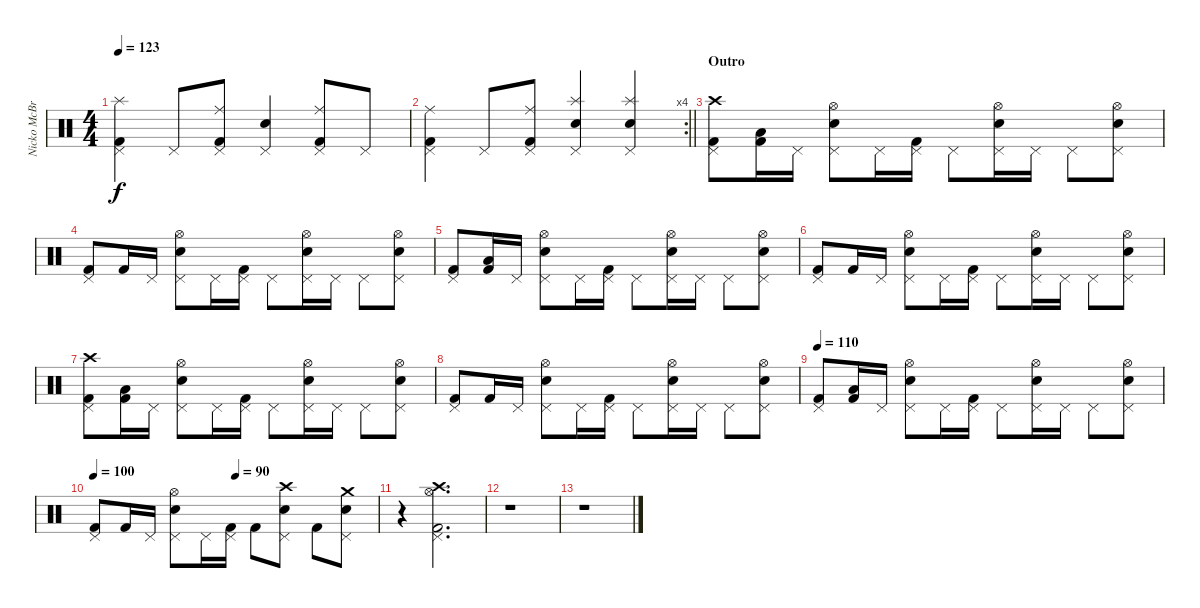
\track ("Nicko McBrain" "Nicko McBr") {instrument percussion}
\staff {score}
\articulation defaults
\ts (4 4)
\tempo 123
\clef neutral
\ks c
("Kick (hit) 2" "Pedal Hi-Hat (hit)" "Splash (hit)").4{dy f} "Pedal Hi-Hat (hit)".8 ("Kick (hit) 2" "Pedal Hi-Hat (hit)" "Ride (middle)").8 ("Snare (hit) 2" "Pedal Hi-Hat (hit)").4 ("Kick (hit) 2" "Pedal Hi-Hat (hit)" "Ride (middle)").8 "Pedal Hi-Hat (hit)".8 |
\rc 4
\barLineRight lightlight
("Kick (hit) 2" "Pedal Hi-Hat (hit)" "Ride (middle)").4 "Pedal Hi-Hat (hit)".8 ("Kick (hit) 2" "Pedal Hi-Hat (hit)" "Ride (middle)").8 ("Snare (hit) 2" "Pedal Hi-Hat (hit)" "Splash (hit)").4 ("Snare (hit) 2" "Pedal Hi-Hat (hit)" "Splash (hit)").4 |
\section ("" "Outro")
("Kick (hit) 2" "Pedal Hi-Hat (hit)" "Crash high (hit)").8 ("Kick (hit) 2" "Low Tom (hit)").16 "Pedal Hi-Hat (hit)".16 ("Snare (hit) 2" "Pedal Hi-Hat (hit)" "Hi-Hat (open)").8 "Pedal Hi-Hat (hit)".16 ("Kick (hit) 2" "Pedal Hi-Hat (hit)").16 "Pedal Hi-Hat (hit)".8 ("Snare (hit) 2" "Pedal Hi-Hat (hit)" "Hi-Hat (open)").16 "Pedal Hi-Hat (hit)".16 "Pedal Hi-Hat (hit)".8 ("Snare (hit) 2" "Pedal Hi-Hat (hit)" "Hi-Hat (open)").8 |
("Kick (hit) 2" "Pedal Hi-Hat (hit)").8 "Kick (hit) 2".16 "Pedal Hi-Hat (hit)".16 ("Snare (hit) 2" "Pedal Hi-Hat (hit)" "Hi-Hat (open)").8 "Pedal Hi-Hat (hit)".16 ("Kick (hit) 2" "Pedal Hi-Hat (hit)").16 "Pedal Hi-Hat (hit)".8 ("Snare (hit) 2" "Pedal Hi-Hat (hit)" "Hi-Hat (open)").16 "Pedal Hi-Hat (hit)".16 "Pedal Hi-Hat (hit)".8 ("Snare (hit) 2" "Pedal Hi-Hat (hit)" "Hi-Hat (open)").8 |
("Kick (hit) 2" "Pedal Hi-Hat (hit)").8 ("Kick (hit) 2" "Low Tom (hit)").16 "Pedal Hi-Hat (hit)".16 ("Snare (hit) 2" "Pedal Hi-Hat (hit)" "Hi-Hat (open)").8 "Pedal Hi-Hat (hit)".16 ("Kick (hit) 2" "Pedal Hi-Hat (hit)").16 "Pedal Hi-Hat (hit)".8 ("Snare (hit) 2" "Pedal Hi-Hat (hit)" "Hi-Hat (open)").16 "Pedal Hi-Hat (hit)".16 "Pedal Hi-Hat (hit)".8 ("Snare (hit) 2" "Pedal Hi-Hat (hit)" "Hi-Hat (open)").8 |
("Kick (hit) 2" "Pedal Hi-Hat (hit)").8 "Kick (hit) 2".16 "Pedal Hi-Hat (hit)".16 ("Snare (hit) 2" "Pedal Hi-Hat (hit)" "Hi-Hat (open)").8 "Pedal Hi-Hat (hit)".16 ("Kick (hit) 2" "Pedal Hi-Hat (hit)").16 "Pedal Hi-Hat (hit)".8 ("Snare (hit) 2" "Pedal Hi-Hat (hit)" "Hi-Hat (open)").16 "Pedal Hi-Hat (hit)".16 "Pedal Hi-Hat (hit)".8 ("Snare (hit) 2" "Pedal Hi-Hat (hit)" "Hi-Hat (open)").8 |
("Kick (hit) 2" "Pedal Hi-Hat (hit)" "Crash high (hit)").8 ("Kick (hit) 2" "Low Tom (hit)").16 "Pedal Hi-Hat (hit)".16 ("Snare (hit) 2" "Pedal Hi-Hat (hit)" "Hi-Hat (open)").8 "Pedal Hi-Hat (hit)".16 ("Kick (hit) 2" "Pedal Hi-Hat (hit)").16 "Pedal Hi-Hat (hit)".8 ("Snare (hit) 2" "Pedal Hi-Hat (hit)" "Hi-Hat (open)").16 "Pedal Hi-Hat (hit)".16 "Pedal Hi-Hat (hit)".8 ("Snare (hit) 2" "Pedal Hi-Hat (hit)" "Hi-Hat (open)").8 |
("Kick (hit) 2" "Pedal Hi-Hat (hit)").8 "Kick (hit) 2".16 "Pedal Hi-Hat (hit)".16 ("Snare (hit) 2" "Pedal Hi-Hat (hit)" "Hi-Hat (open)").8 "Pedal Hi-Hat (hit)".16 ("Kick (hit) 2" "Pedal Hi-Hat (hit)").16 "Pedal Hi-Hat (hit)".8 ("Snare (hit) 2" "Pedal Hi-Hat (hit)" "Hi-Hat (open)").16 "Pedal Hi-Hat (hit)".16 "Pedal Hi-Hat (hit)".8 ("Snare (hit) 2" "Pedal Hi-Hat (hit)" "Hi-Hat (open)").8 |
\tempo 110
("Kick (hit) 2" "Pedal Hi-Hat (hit)").8 ("Kick (hit) 2" "Low Tom (hit)").16 "Pedal Hi-Hat (hit)".16 ("Snare (hit) 2" "Pedal Hi-Hat (hit)" "Hi-Hat (open)").8 "Pedal Hi-Hat (hit)".16 ("Kick (hit) 2" "Pedal Hi-Hat (hit)").16 "Pedal Hi-Hat (hit)".8 ("Snare (hit) 2" "Pedal Hi-Hat (hit)" "Hi-Hat (open)").16 "Pedal Hi-Hat (hit)".16 "Pedal Hi-Hat (hit)".8 ("Snare (hit) 2" "Pedal Hi-Hat (hit)" "Hi-Hat (open)").8 |
\tempo 100
\tempo (90 0.5)
("Kick (hit) 2" "Pedal Hi-Hat (hit)").8 "Kick (hit) 2".16 "Pedal Hi-Hat (hit)".16 ("Snare (hit) 2" "Pedal Hi-Hat (hit)" "Hi-Hat (open)").8 "Pedal Hi-Hat (hit)".16 ("Kick (hit) 2" "Pedal Hi-Hat (hit)").16 "Kick (hit) 2".8 ("Snare (hit) 2" "Pedal Hi-Hat (hit)" "Crash high (hit)").8 "Kick (hit) 2".8 ("Snare (hit) 2" "Pedal Hi-Hat (hit)" "Crash medium (hit)").8 |
r.4 ("Kick (hit) 2" "Pedal Hi-Hat (hit)" "Hi-Hat (open)" "Crash high (hit)").2{d} |
r.1 |
r.1
